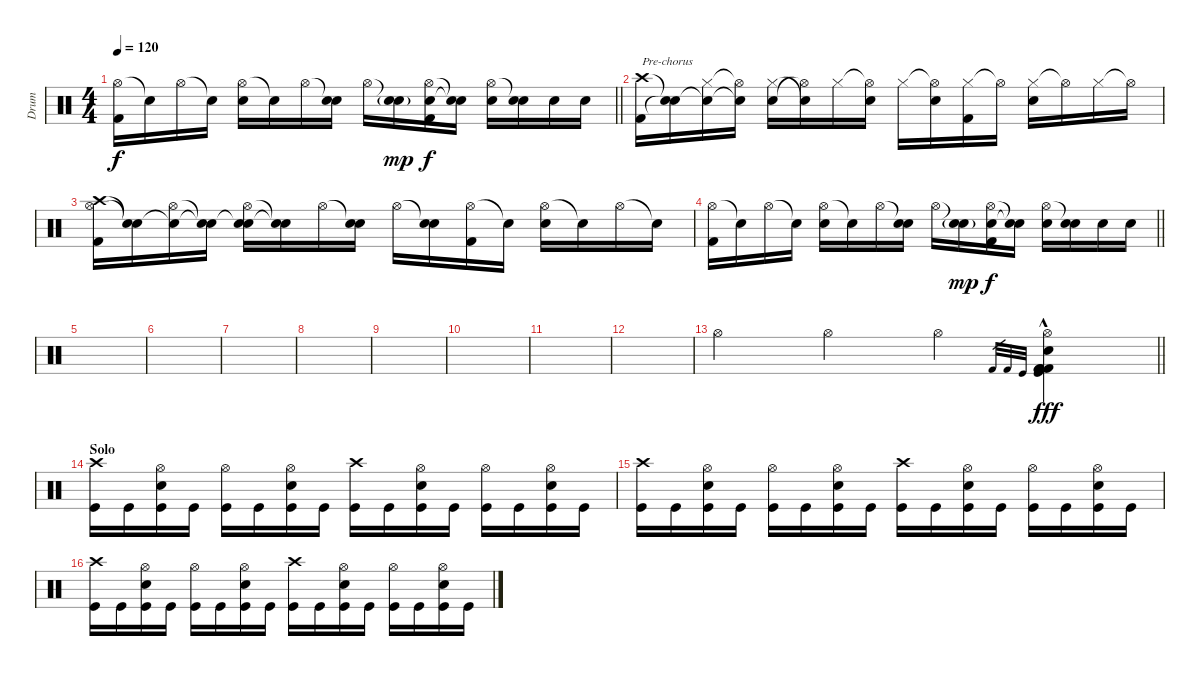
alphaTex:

\track ("Drum" "Drum") {instrument percussion}
\staff {score}
\articulation defaults
\ts (4 4)
\tempo 120
\clef neutral
\barLineRight lightlight
\ks c
("Hi-Hat (open)" "Kick (hit) 2").16{dy f} "Snare (hit)"{t}.16 "Hi-Hat (open)".16 "Snare (hit)"{t}.16 ("Hi-Hat (open)" "Electric Snare (hit)").16 "Snare (hit)"{t}.16 "Hi-Hat (open)".16 ("Snare (hit)"{t} "Electric Snare (hit)").16 "Hi-Hat (open)".16 ("Snare (hit)"{t} "Electric Snare (hit)"{g}).16{dy mp} ("Hi-Hat (open)" "Electric Snare (hit)" "Kick (hit) 2").16{dy f} ("Snare (hit)"{t} "Snare (hit)"{t}).16 ("Hi-Hat (open)" "Electric Snare (hit)").16 ("Snare (hit)"{t} "Electric Snare (hit)").16 "Electric Snare (hit)".16 "Electric Snare (hit)".16 |
("Crash high (hit)" "Kick (hit) 2").16{txt "Pre-chorus"} ("Snare (hit)"{t} "Snare (hit)"{t}).16 ("Snare (hit)"{t} "Hi-Hat (closed)").16 ("Snare (hit)"{t} "Hi-Hat (open)"{t}).16 ("Hi-Hat (closed)" "Electric Snare (hit)").16 ("Snare (hit)"{t} "Hi-Hat (open)"{t}).16 "Hi-Hat (closed)".16 ("Hi-Hat (open)"{t} "Electric Snare (hit)").16 "Hi-Hat (closed)".16 ("Hi-Hat (open)"{t} "Electric Snare (hit)").16 ("Hi-Hat (closed)" "Kick (hit) 2").16 "Hi-Hat (open)"{t}.16 ("Hi-Hat (closed)" "Electric Snare (hit)").16 "Hi-Hat (open)"{t}.16 "Hi-Hat (closed)".16 "Hi-Hat (open)"{t}.16 |
("Crash high (hit)" "Hi-Hat (open)" "Kick (hit) 2").16 ("Snare (hit)"{t} "Snare (hit)"{t}).16 ("Snare (hit)"{t} "Hi-Hat (open)").16 ("Snare (hit)"{t} "Snare (hit)"{t}).16 ("Snare (hit)"{t} "Hi-Hat (open)" "Electric Snare (hit)").16 ("Snare (hit)"{t} "Snare (hit)"{t}).16 "Hi-Hat (open)".16 ("Snare (hit)"{t} "Electric Snare (hit)").16 "Hi-Hat (open)".16 ("Snare (hit)"{t} "Electric Snare (hit)").16 ("Hi-Hat (open)" "Kick (hit) 2").16 "Snare (hit)"{t}.16 ("Hi-Hat (open)" "Electric Snare (hit)").16 "Snare (hit)"{t}.16 "Hi-Hat (open)".16 "Snare (hit)"{t}.16 |
\barLineRight lightlight
("Hi-Hat (open)" "Kick (hit) 2").16 "Snare (hit)"{t}.16 "Hi-Hat (open)".16 "Snare (hit)"{t}.16 ("Hi-Hat (open)" "Electric Snare (hit)").16 "Snare (hit)"{t}.16 "Hi-Hat (open)".16 ("Snare (hit)"{t} "Electric Snare (hit)").16 "Hi-Hat (open)".16 ("Snare (hit)"{t} "Electric Snare (hit)"{g}).16{dy mp} ("Hi-Hat (open)" "Electric Snare (hit)" "Kick (hit) 2").16{dy f} ("Snare (hit)"{t} "Snare (hit)"{t}).16 ("Hi-Hat (open)" "Electric Snare (hit)").16 ("Snare (hit)"{t} "Electric Snare (hit)").16 "Electric Snare (hit)".16 "Electric Snare (hit)".16 |
|
|
|
|
|
|
|
|
\barLineRight lightlight "Hi-Hat (open)".4 "Hi-Hat (open)".4 "Hi-Hat (open)".4 "Kick (hit) 2".32{gr} "Kick (hit) 2".32{gr} "Kick (hit)".32{gr}
("Kick (hit) 2"{hac} "Kick (hit) 2"{hac} "Kick (hit) 2"{hac} "Hi-Hat (open)" "Snare (hit)"{hac} "Kick (hit)"{hac}).4{dy fff} |
\section ("" "Solo")
("Crash high (hit)" "Kick (hit)").16 "Kick (hit)".16 ("Hi-Hat (open)" "Electric Snare (hit)" "Kick (hit)").16 "Kick (hit)".16 ("Hi-Hat (open)" "Kick (hit)").16 "Kick (hit)".16 ("Hi-Hat (open)" "Electric Snare (hit)" "Kick (hit)").16 "Kick (hit)".16 ("Crash high (hit)" "Kick (hit)").16 "Kick (hit)".16 ("Hi-Hat (open)" "Electric Snare (hit)" "Kick (hit)").16 "Kick (hit)".16 ("Hi-Hat (open)" "Kick (hit)").16 "Kick (hit)".16 ("Hi-Hat (open)" "Electric Snare (hit)" "Kick (hit)").16 "Kick (hit)".16 |
("Crash high (hit)" "Kick (hit)").16 "Kick (hit)".16 ("Hi-Hat (open)" "Electric Snare (hit)" "Kick (hit)").16 "Kick (hit)".16 ("Hi-Hat (open)" "Kick (hit)").16 "Kick (hit)".16 ("Hi-Hat (open)" "Electric Snare (hit)" "Kick (hit)").16 "Kick (hit)".16 ("Crash high (hit)" "Kick (hit)").16 "Kick (hit)".16 ("Hi-Hat (open)" "Electric Snare (hit)" "Kick (hit)").16 "Kick (hit)".16 ("Hi-Hat (open)" "Kick (hit)").16 "Kick (hit)".16 ("Hi-Hat (open)" "Electric Snare (hit)" "Kick (hit)").16 "Kick (hit)".16 |
("Crash high (hit)" "Kick (hit)").16 "Kick (hit)".16 ("Hi-Hat (open)" "Electric Snare (hit)" "Kick (hit)").16 "Kick (hit)".16 ("Hi-Hat (open)" "Kick (hit)").16 "Kick (hit)".16 ("Hi-Hat (open)" "Electric Snare (hit)" "Kick (hit)").16 "Kick (hit)".16 ("Crash high (hit)" "Kick (hit)").16 "Kick (hit)".16 ("Hi-Hat (open)" "Electric Snare (hit)" "Kick (hit)").16 "Kick (hit)".16 ("Hi-Hat (open)" "Kick (hit)").16 "Kick (hit)".16 ("Hi-Hat (open)" "Electric Snare (hit)" "Kick (hit)").16 "Kick (hit)".16
